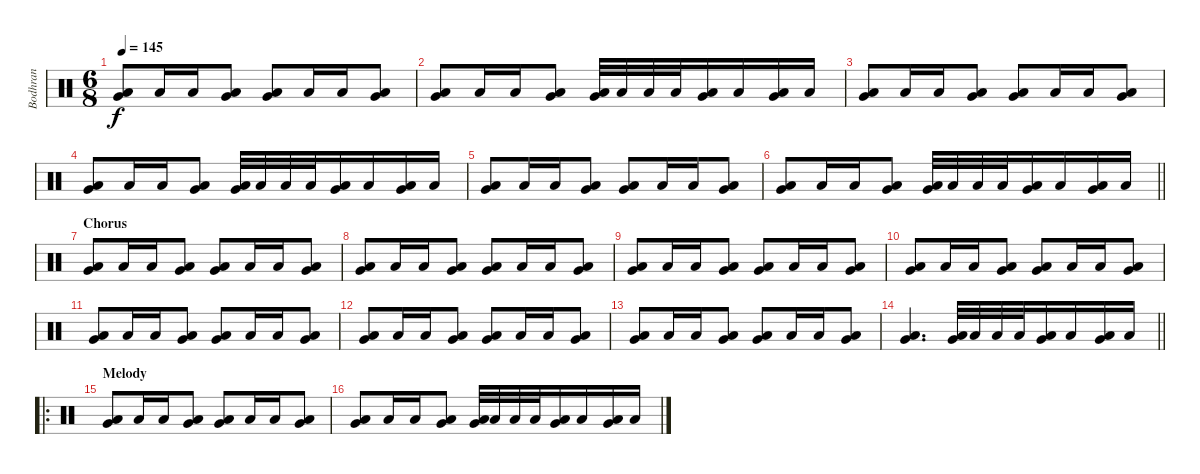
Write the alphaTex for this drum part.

\track ("Bodhran" "Bodhran") {instrument percussion}
\staff {score}
\articulation defaults
\ts (6 8)
\tempo 145
\clef neutral
\ks c
("Very Low Tom (hit)" "Low Floor Tom (hit)").8{dy f} "Low Floor Tom (hit)".16 "Low Floor Tom (hit)".16 ("Very Low Tom (hit)" "Low Floor Tom (hit)").8 ("Very Low Tom (hit)" "Low Floor Tom (hit)").8 "Low Floor Tom (hit)".16 "Low Floor Tom (hit)".16 ("Very Low Tom (hit)" "Low Floor Tom (hit)").8 |
("Very Low Tom (hit)" "Low Floor Tom (hit)").8 "Low Floor Tom (hit)".16 "Low Floor Tom (hit)".16 ("Very Low Tom (hit)" "Low Floor Tom (hit)").8 ("Very Low Tom (hit)" "Low Floor Tom (hit)").32 "Low Floor Tom (hit)".32 "Low Floor Tom (hit)".32 "Low Floor Tom (hit)".32 ("Very Low Tom (hit)" "Low Floor Tom (hit)").16 "Low Floor Tom (hit)".16 ("Very Low Tom (hit)" "Low Floor Tom (hit)").16 "Low Floor Tom (hit)".16 |
("Very Low Tom (hit)" "Low Floor Tom (hit)").8 "Low Floor Tom (hit)".16 "Low Floor Tom (hit)".16 ("Very Low Tom (hit)" "Low Floor Tom (hit)").8 ("Very Low Tom (hit)" "Low Floor Tom (hit)").8 "Low Floor Tom (hit)".16 "Low Floor Tom (hit)".16 ("Very Low Tom (hit)" "Low Floor Tom (hit)").8 |
("Very Low Tom (hit)" "Low Floor Tom (hit)").8 "Low Floor Tom (hit)".16 "Low Floor Tom (hit)".16 ("Very Low Tom (hit)" "Low Floor Tom (hit)").8 ("Very Low Tom (hit)" "Low Floor Tom (hit)").32 "Low Floor Tom (hit)".32 "Low Floor Tom (hit)".32 "Low Floor Tom (hit)".32 ("Very Low Tom (hit)" "Low Floor Tom (hit)").16 "Low Floor Tom (hit)".16 ("Very Low Tom (hit)" "Low Floor Tom (hit)").16 "Low Floor Tom (hit)".16 |
("Very Low Tom (hit)" "Low Floor Tom (hit)").8 "Low Floor Tom (hit)".16 "Low Floor Tom (hit)".16 ("Very Low Tom (hit)" "Low Floor Tom (hit)").8 ("Very Low Tom (hit)" "Low Floor Tom (hit)").8 "Low Floor Tom (hit)".16 "Low Floor Tom (hit)".16 ("Very Low Tom (hit)" "Low Floor Tom (hit)").8 |
\barLineRight lightlight
("Very Low Tom (hit)" "Low Floor Tom (hit)").8 "Low Floor Tom (hit)".16 "Low Floor Tom (hit)".16 ("Very Low Tom (hit)" "Low Floor Tom (hit)").8 ("Very Low Tom (hit)" "Low Floor Tom (hit)").32 "Low Floor Tom (hit)".32 "Low Floor Tom (hit)".32 "Low Floor Tom (hit)".32 ("Very Low Tom (hit)" "Low Floor Tom (hit)").16 "Low Floor Tom (hit)".16 ("Very Low Tom (hit)" "Low Floor Tom (hit)").16 "Low Floor Tom (hit)".16 |
\section ("" "Chorus")
("Very Low Tom (hit)" "Low Floor Tom (hit)").8 "Low Floor Tom (hit)".16 "Low Floor Tom (hit)".16 ("Very Low Tom (hit)" "Low Floor Tom (hit)").8 ("Very Low Tom (hit)" "Low Floor Tom (hit)").8 "Low Floor Tom (hit)".16 "Low Floor Tom (hit)".16 ("Very Low Tom (hit)" "Low Floor Tom (hit)").8 |
("Very Low Tom (hit)" "Low Floor Tom (hit)").8 "Low Floor Tom (hit)".16 "Low Floor Tom (hit)".16 ("Very Low Tom (hit)" "Low Floor Tom (hit)").8 ("Very Low Tom (hit)" "Low Floor Tom (hit)").8 "Low Floor Tom (hit)".16 "Low Floor Tom (hit)".16 ("Very Low Tom (hit)" "Low Floor Tom (hit)").8 |
("Very Low Tom (hit)" "Low Floor Tom (hit)").8 "Low Floor Tom (hit)".16 "Low Floor Tom (hit)".16 ("Very Low Tom (hit)" "Low Floor Tom (hit)").8 ("Very Low Tom (hit)" "Low Floor Tom (hit)").8 "Low Floor Tom (hit)".16 "Low Floor Tom (hit)".16 ("Very Low Tom (hit)" "Low Floor Tom (hit)").8 |
("Very Low Tom (hit)" "Low Floor Tom (hit)").8 "Low Floor Tom (hit)".16 "Low Floor Tom (hit)".16 ("Very Low Tom (hit)" "Low Floor Tom (hit)").8 ("Very Low Tom (hit)" "Low Floor Tom (hit)").8 "Low Floor Tom (hit)".16 "Low Floor Tom (hit)".16 ("Very Low Tom (hit)" "Low Floor Tom (hit)").8 |
("Very Low Tom (hit)" "Low Floor Tom (hit)").8 "Low Floor Tom (hit)".16 "Low Floor Tom (hit)".16 ("Very Low Tom (hit)" "Low Floor Tom (hit)").8 ("Very Low Tom (hit)" "Low Floor Tom (hit)").8 "Low Floor Tom (hit)".16 "Low Floor Tom (hit)".16 ("Very Low Tom (hit)" "Low Floor Tom (hit)").8 |
("Very Low Tom (hit)" "Low Floor Tom (hit)").8 "Low Floor Tom (hit)".16 "Low Floor Tom (hit)".16 ("Very Low Tom (hit)" "Low Floor Tom (hit)").8 ("Very Low Tom (hit)" "Low Floor Tom (hit)").8 "Low Floor Tom (hit)".16 "Low Floor Tom (hit)".16 ("Very Low Tom (hit)" "Low Floor Tom (hit)").8 |
("Very Low Tom (hit)" "Low Floor Tom (hit)").8 "Low Floor Tom (hit)".16 "Low Floor Tom (hit)".16 ("Very Low Tom (hit)" "Low Floor Tom (hit)").8 ("Very Low Tom (hit)" "Low Floor Tom (hit)").8 "Low Floor Tom (hit)".16 "Low Floor Tom (hit)".16 ("Very Low Tom (hit)" "Low Floor Tom (hit)").8 |
\barLineRight lightlight
("Very Low Tom (hit)" "Low Floor Tom (hit)").4{d} ("Very Low Tom (hit)" "Low Floor Tom (hit)").32 "Low Floor Tom (hit)".32 "Low Floor Tom (hit)".32 "Low Floor Tom (hit)".32 ("Very Low Tom (hit)" "Low Floor Tom (hit)").16 "Low Floor Tom (hit)".16 ("Very Low Tom (hit)" "Low Floor Tom (hit)").16 "Low Floor Tom (hit)".16 |
\ro
\section ("" "Melody")
("Very Low Tom (hit)" "Low Floor Tom (hit)").8 "Low Floor Tom (hit)".16 "Low Floor Tom (hit)".16 ("Very Low Tom (hit)" "Low Floor Tom (hit)").8 ("Very Low Tom (hit)" "Low Floor Tom (hit)").8 "Low Floor Tom (hit)".16 "Low Floor Tom (hit)".16 ("Very Low Tom (hit)" "Low Floor Tom (hit)").8 |
("Very Low Tom (hit)" "Low Floor Tom (hit)").8 "Low Floor Tom (hit)".16 "Low Floor Tom (hit)".16 ("Very Low Tom (hit)" "Low Floor Tom (hit)").8 ("Very Low Tom (hit)" "Low Floor Tom (hit)").32 "Low Floor Tom (hit)".32 "Low Floor Tom (hit)".32 "Low Floor Tom (hit)".32 ("Very Low Tom (hit)" "Low Floor Tom (hit)").16 "Low Floor Tom (hit)".16 ("Very Low Tom (hit)" "Low Floor Tom (hit)").16 "Low Floor Tom (hit)".16
